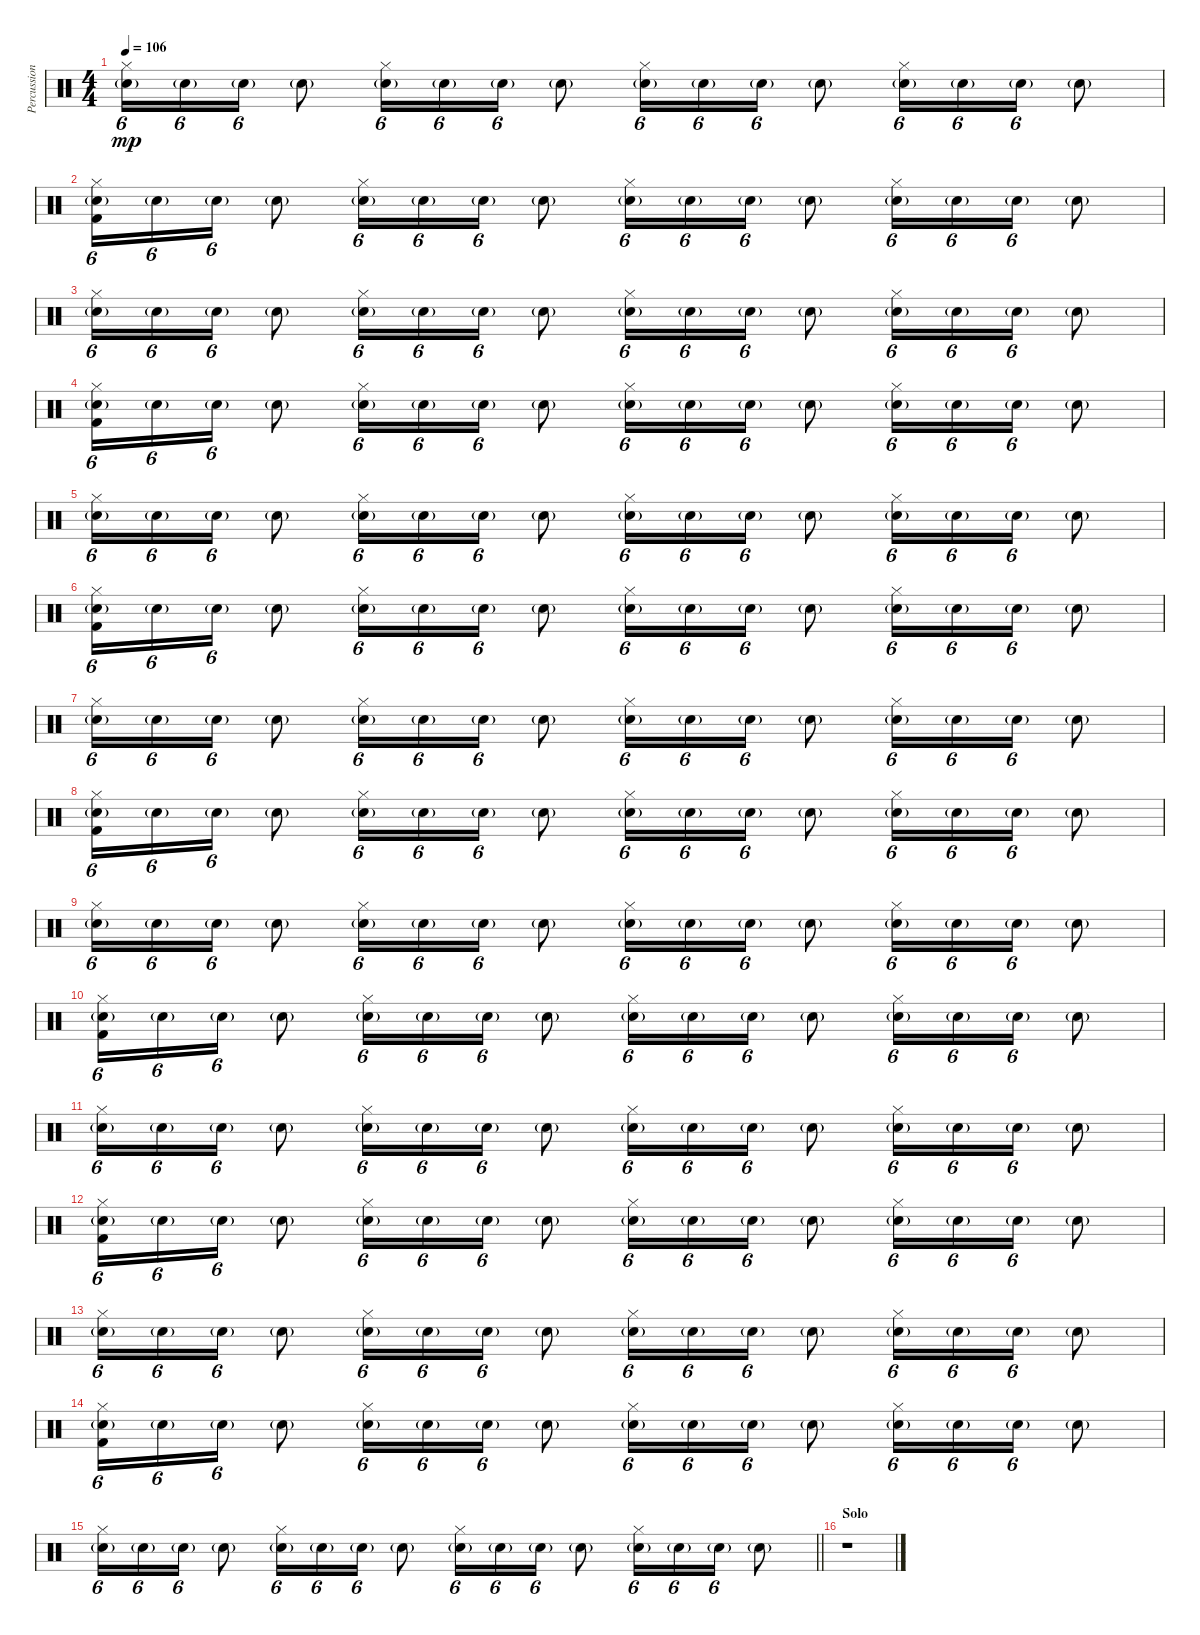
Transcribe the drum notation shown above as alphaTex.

\track ("Percussions" "Percussion") {instrument percussion}
\staff {score}
\articulation defaults
\ts (4 4)
\tempo 106
\clef neutral
\ks c
("Hi-Hat (closed)" "Electric Snare (hit)"{g}).16{tu (6 4) dy mp} "Electric Snare (hit)"{g}.16{tu (6 4)} "Electric Snare (hit)"{g}.16{tu (6 4)} "Electric Snare (hit)"{g}.8 ("Hi-Hat (closed)" "Electric Snare (hit)"{g}).16{tu (6 4)} "Electric Snare (hit)"{g}.16{tu (6 4)} "Electric Snare (hit)"{g}.16{tu (6 4)} "Electric Snare (hit)"{g}.8 ("Hi-Hat (closed)" "Electric Snare (hit)"{g}).16{tu (6 4)} "Electric Snare (hit)"{g}.16{tu (6 4)} "Electric Snare (hit)"{g}.16{tu (6 4)} "Electric Snare (hit)"{g}.8 ("Hi-Hat (closed)" "Electric Snare (hit)"{g}).16{tu (6 4)} "Electric Snare (hit)"{g}.16{tu (6 4)} "Electric Snare (hit)"{g}.16{tu (6 4)} "Electric Snare (hit)"{g}.8 |
("Hi-Hat (closed)" "Electric Snare (hit)"{g} "Kick (hit) 2").16{tu (6 4)} "Electric Snare (hit)"{g}.16{tu (6 4)} "Electric Snare (hit)"{g}.16{tu (6 4)} "Electric Snare (hit)"{g}.8 ("Hi-Hat (closed)" "Electric Snare (hit)"{g}).16{tu (6 4)} "Electric Snare (hit)"{g}.16{tu (6 4)} "Electric Snare (hit)"{g}.16{tu (6 4)} "Electric Snare (hit)"{g}.8 ("Hi-Hat (closed)" "Electric Snare (hit)"{g}).16{tu (6 4)} "Electric Snare (hit)"{g}.16{tu (6 4)} "Electric Snare (hit)"{g}.16{tu (6 4)} "Electric Snare (hit)"{g}.8 ("Hi-Hat (closed)" "Electric Snare (hit)"{g}).16{tu (6 4)} "Electric Snare (hit)"{g}.16{tu (6 4)} "Electric Snare (hit)"{g}.16{tu (6 4)} "Electric Snare (hit)"{g}.8 |
("Hi-Hat (closed)" "Electric Snare (hit)"{g}).16{tu (6 4)} "Electric Snare (hit)"{g}.16{tu (6 4)} "Electric Snare (hit)"{g}.16{tu (6 4)} "Electric Snare (hit)"{g}.8 ("Hi-Hat (closed)" "Electric Snare (hit)"{g}).16{tu (6 4)} "Electric Snare (hit)"{g}.16{tu (6 4)} "Electric Snare (hit)"{g}.16{tu (6 4)} "Electric Snare (hit)"{g}.8 ("Hi-Hat (closed)" "Electric Snare (hit)"{g}).16{tu (6 4)} "Electric Snare (hit)"{g}.16{tu (6 4)} "Electric Snare (hit)"{g}.16{tu (6 4)} "Electric Snare (hit)"{g}.8 ("Hi-Hat (closed)" "Electric Snare (hit)"{g}).16{tu (6 4)} "Electric Snare (hit)"{g}.16{tu (6 4)} "Electric Snare (hit)"{g}.16{tu (6 4)} "Electric Snare (hit)"{g}.8 |
("Hi-Hat (closed)" "Electric Snare (hit)"{g} "Kick (hit) 2").16{tu (6 4)} "Electric Snare (hit)"{g}.16{tu (6 4)} "Electric Snare (hit)"{g}.16{tu (6 4)} "Electric Snare (hit)"{g}.8 ("Hi-Hat (closed)" "Electric Snare (hit)"{g}).16{tu (6 4)} "Electric Snare (hit)"{g}.16{tu (6 4)} "Electric Snare (hit)"{g}.16{tu (6 4)} "Electric Snare (hit)"{g}.8 ("Hi-Hat (closed)" "Electric Snare (hit)"{g}).16{tu (6 4)} "Electric Snare (hit)"{g}.16{tu (6 4)} "Electric Snare (hit)"{g}.16{tu (6 4)} "Electric Snare (hit)"{g}.8 ("Hi-Hat (closed)" "Electric Snare (hit)"{g}).16{tu (6 4)} "Electric Snare (hit)"{g}.16{tu (6 4)} "Electric Snare (hit)"{g}.16{tu (6 4)} "Electric Snare (hit)"{g}.8 |
("Hi-Hat (closed)" "Electric Snare (hit)"{g}).16{tu (6 4)} "Electric Snare (hit)"{g}.16{tu (6 4)} "Electric Snare (hit)"{g}.16{tu (6 4)} "Electric Snare (hit)"{g}.8 ("Hi-Hat (closed)" "Electric Snare (hit)"{g}).16{tu (6 4)} "Electric Snare (hit)"{g}.16{tu (6 4)} "Electric Snare (hit)"{g}.16{tu (6 4)} "Electric Snare (hit)"{g}.8 ("Hi-Hat (closed)" "Electric Snare (hit)"{g}).16{tu (6 4)} "Electric Snare (hit)"{g}.16{tu (6 4)} "Electric Snare (hit)"{g}.16{tu (6 4)} "Electric Snare (hit)"{g}.8 ("Hi-Hat (closed)" "Electric Snare (hit)"{g}).16{tu (6 4)} "Electric Snare (hit)"{g}.16{tu (6 4)} "Electric Snare (hit)"{g}.16{tu (6 4)} "Electric Snare (hit)"{g}.8 |
("Hi-Hat (closed)" "Electric Snare (hit)"{g} "Kick (hit) 2").16{tu (6 4)} "Electric Snare (hit)"{g}.16{tu (6 4)} "Electric Snare (hit)"{g}.16{tu (6 4)} "Electric Snare (hit)"{g}.8 ("Hi-Hat (closed)" "Electric Snare (hit)"{g}).16{tu (6 4)} "Electric Snare (hit)"{g}.16{tu (6 4)} "Electric Snare (hit)"{g}.16{tu (6 4)} "Electric Snare (hit)"{g}.8 ("Hi-Hat (closed)" "Electric Snare (hit)"{g}).16{tu (6 4)} "Electric Snare (hit)"{g}.16{tu (6 4)} "Electric Snare (hit)"{g}.16{tu (6 4)} "Electric Snare (hit)"{g}.8 ("Hi-Hat (closed)" "Electric Snare (hit)"{g}).16{tu (6 4)} "Electric Snare (hit)"{g}.16{tu (6 4)} "Electric Snare (hit)"{g}.16{tu (6 4)} "Electric Snare (hit)"{g}.8 |
("Hi-Hat (closed)" "Electric Snare (hit)"{g}).16{tu (6 4)} "Electric Snare (hit)"{g}.16{tu (6 4)} "Electric Snare (hit)"{g}.16{tu (6 4)} "Electric Snare (hit)"{g}.8 ("Hi-Hat (closed)" "Electric Snare (hit)"{g}).16{tu (6 4)} "Electric Snare (hit)"{g}.16{tu (6 4)} "Electric Snare (hit)"{g}.16{tu (6 4)} "Electric Snare (hit)"{g}.8 ("Hi-Hat (closed)" "Electric Snare (hit)"{g}).16{tu (6 4)} "Electric Snare (hit)"{g}.16{tu (6 4)} "Electric Snare (hit)"{g}.16{tu (6 4)} "Electric Snare (hit)"{g}.8 ("Hi-Hat (closed)" "Electric Snare (hit)"{g}).16{tu (6 4)} "Electric Snare (hit)"{g}.16{tu (6 4)} "Electric Snare (hit)"{g}.16{tu (6 4)} "Electric Snare (hit)"{g}.8 |
("Hi-Hat (closed)" "Electric Snare (hit)"{g} "Kick (hit) 2").16{tu (6 4)} "Electric Snare (hit)"{g}.16{tu (6 4)} "Electric Snare (hit)"{g}.16{tu (6 4)} "Electric Snare (hit)"{g}.8 ("Hi-Hat (closed)" "Electric Snare (hit)"{g}).16{tu (6 4)} "Electric Snare (hit)"{g}.16{tu (6 4)} "Electric Snare (hit)"{g}.16{tu (6 4)} "Electric Snare (hit)"{g}.8 ("Hi-Hat (closed)" "Electric Snare (hit)"{g}).16{tu (6 4)} "Electric Snare (hit)"{g}.16{tu (6 4)} "Electric Snare (hit)"{g}.16{tu (6 4)} "Electric Snare (hit)"{g}.8 ("Hi-Hat (closed)" "Electric Snare (hit)"{g}).16{tu (6 4)} "Electric Snare (hit)"{g}.16{tu (6 4)} "Electric Snare (hit)"{g}.16{tu (6 4)} "Electric Snare (hit)"{g}.8 |
("Hi-Hat (closed)" "Electric Snare (hit)"{g}).16{tu (6 4)} "Electric Snare (hit)"{g}.16{tu (6 4)} "Electric Snare (hit)"{g}.16{tu (6 4)} "Electric Snare (hit)"{g}.8 ("Hi-Hat (closed)" "Electric Snare (hit)"{g}).16{tu (6 4)} "Electric Snare (hit)"{g}.16{tu (6 4)} "Electric Snare (hit)"{g}.16{tu (6 4)} "Electric Snare (hit)"{g}.8 ("Hi-Hat (closed)" "Electric Snare (hit)"{g}).16{tu (6 4)} "Electric Snare (hit)"{g}.16{tu (6 4)} "Electric Snare (hit)"{g}.16{tu (6 4)} "Electric Snare (hit)"{g}.8 ("Hi-Hat (closed)" "Electric Snare (hit)"{g}).16{tu (6 4)} "Electric Snare (hit)"{g}.16{tu (6 4)} "Electric Snare (hit)"{g}.16{tu (6 4)} "Electric Snare (hit)"{g}.8 |
("Hi-Hat (closed)" "Electric Snare (hit)"{g} "Kick (hit) 2").16{tu (6 4)} "Electric Snare (hit)"{g}.16{tu (6 4)} "Electric Snare (hit)"{g}.16{tu (6 4)} "Electric Snare (hit)"{g}.8 ("Hi-Hat (closed)" "Electric Snare (hit)"{g}).16{tu (6 4)} "Electric Snare (hit)"{g}.16{tu (6 4)} "Electric Snare (hit)"{g}.16{tu (6 4)} "Electric Snare (hit)"{g}.8 ("Hi-Hat (closed)" "Electric Snare (hit)"{g}).16{tu (6 4)} "Electric Snare (hit)"{g}.16{tu (6 4)} "Electric Snare (hit)"{g}.16{tu (6 4)} "Electric Snare (hit)"{g}.8 ("Hi-Hat (closed)" "Electric Snare (hit)"{g}).16{tu (6 4)} "Electric Snare (hit)"{g}.16{tu (6 4)} "Electric Snare (hit)"{g}.16{tu (6 4)} "Electric Snare (hit)"{g}.8 |
("Hi-Hat (closed)" "Electric Snare (hit)"{g}).16{tu (6 4)} "Electric Snare (hit)"{g}.16{tu (6 4)} "Electric Snare (hit)"{g}.16{tu (6 4)} "Electric Snare (hit)"{g}.8 ("Hi-Hat (closed)" "Electric Snare (hit)"{g}).16{tu (6 4)} "Electric Snare (hit)"{g}.16{tu (6 4)} "Electric Snare (hit)"{g}.16{tu (6 4)} "Electric Snare (hit)"{g}.8 ("Hi-Hat (closed)" "Electric Snare (hit)"{g}).16{tu (6 4)} "Electric Snare (hit)"{g}.16{tu (6 4)} "Electric Snare (hit)"{g}.16{tu (6 4)} "Electric Snare (hit)"{g}.8 ("Hi-Hat (closed)" "Electric Snare (hit)"{g}).16{tu (6 4)} "Electric Snare (hit)"{g}.16{tu (6 4)} "Electric Snare (hit)"{g}.16{tu (6 4)} "Electric Snare (hit)"{g}.8 |
("Hi-Hat (closed)" "Electric Snare (hit)"{g} "Kick (hit) 2").16{tu (6 4)} "Electric Snare (hit)"{g}.16{tu (6 4)} "Electric Snare (hit)"{g}.16{tu (6 4)} "Electric Snare (hit)"{g}.8 ("Hi-Hat (closed)" "Electric Snare (hit)"{g}).16{tu (6 4)} "Electric Snare (hit)"{g}.16{tu (6 4)} "Electric Snare (hit)"{g}.16{tu (6 4)} "Electric Snare (hit)"{g}.8 ("Hi-Hat (closed)" "Electric Snare (hit)"{g}).16{tu (6 4)} "Electric Snare (hit)"{g}.16{tu (6 4)} "Electric Snare (hit)"{g}.16{tu (6 4)} "Electric Snare (hit)"{g}.8 ("Hi-Hat (closed)" "Electric Snare (hit)"{g}).16{tu (6 4)} "Electric Snare (hit)"{g}.16{tu (6 4)} "Electric Snare (hit)"{g}.16{tu (6 4)} "Electric Snare (hit)"{g}.8 |
("Hi-Hat (closed)" "Electric Snare (hit)"{g}).16{tu (6 4)} "Electric Snare (hit)"{g}.16{tu (6 4)} "Electric Snare (hit)"{g}.16{tu (6 4)} "Electric Snare (hit)"{g}.8 ("Hi-Hat (closed)" "Electric Snare (hit)"{g}).16{tu (6 4)} "Electric Snare (hit)"{g}.16{tu (6 4)} "Electric Snare (hit)"{g}.16{tu (6 4)} "Electric Snare (hit)"{g}.8 ("Hi-Hat (closed)" "Electric Snare (hit)"{g}).16{tu (6 4)} "Electric Snare (hit)"{g}.16{tu (6 4)} "Electric Snare (hit)"{g}.16{tu (6 4)} "Electric Snare (hit)"{g}.8 ("Hi-Hat (closed)" "Electric Snare (hit)"{g}).16{tu (6 4)} "Electric Snare (hit)"{g}.16{tu (6 4)} "Electric Snare (hit)"{g}.16{tu (6 4)} "Electric Snare (hit)"{g}.8 |
("Hi-Hat (closed)" "Electric Snare (hit)"{g} "Kick (hit) 2").16{tu (6 4)} "Electric Snare (hit)"{g}.16{tu (6 4)} "Electric Snare (hit)"{g}.16{tu (6 4)} "Electric Snare (hit)"{g}.8 ("Hi-Hat (closed)" "Electric Snare (hit)"{g}).16{tu (6 4)} "Electric Snare (hit)"{g}.16{tu (6 4)} "Electric Snare (hit)"{g}.16{tu (6 4)} "Electric Snare (hit)"{g}.8 ("Hi-Hat (closed)" "Electric Snare (hit)"{g}).16{tu (6 4)} "Electric Snare (hit)"{g}.16{tu (6 4)} "Electric Snare (hit)"{g}.16{tu (6 4)} "Electric Snare (hit)"{g}.8 ("Hi-Hat (closed)" "Electric Snare (hit)"{g}).16{tu (6 4)} "Electric Snare (hit)"{g}.16{tu (6 4)} "Electric Snare (hit)"{g}.16{tu (6 4)} "Electric Snare (hit)"{g}.8 |
\barLineRight lightlight
("Hi-Hat (closed)" "Electric Snare (hit)"{g}).16{tu (6 4)} "Electric Snare (hit)"{g}.16{tu (6 4)} "Electric Snare (hit)"{g}.16{tu (6 4)} "Electric Snare (hit)"{g}.8 ("Hi-Hat (closed)" "Electric Snare (hit)"{g}).16{tu (6 4)} "Electric Snare (hit)"{g}.16{tu (6 4)} "Electric Snare (hit)"{g}.16{tu (6 4)} "Electric Snare (hit)"{g}.8 ("Hi-Hat (closed)" "Electric Snare (hit)"{g}).16{tu (6 4)} "Electric Snare (hit)"{g}.16{tu (6 4)} "Electric Snare (hit)"{g}.16{tu (6 4)} "Electric Snare (hit)"{g}.8 ("Hi-Hat (closed)" "Electric Snare (hit)"{g}).16{tu (6 4)} "Electric Snare (hit)"{g}.16{tu (6 4)} "Electric Snare (hit)"{g}.16{tu (6 4)} "Electric Snare (hit)"{g}.8 |
\section ("" "Solo")
r.1
